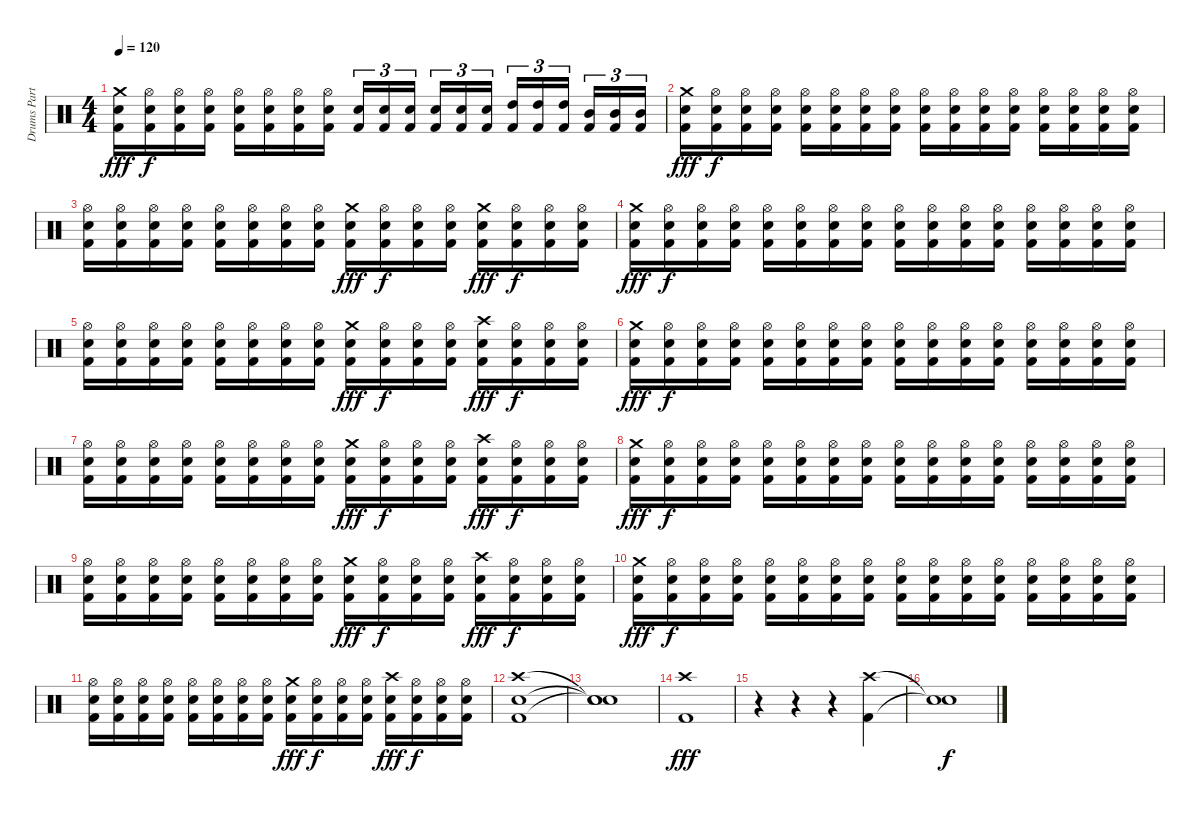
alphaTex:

\track ("Drums Part" "Drums Part") {instrument percussion}
\staff {score}
\articulation defaults
\ts (4 4)
\tempo 120
\clef neutral
\ks c
("Crash medium (hit)" "Electric Snare (hit)" "Kick (hit) 2").16{dy fff} ("Hi-Hat (open)" "Electric Snare (hit)" "Kick (hit) 2").16{dy f} ("Hi-Hat (open)" "Electric Snare (hit)" "Kick (hit) 2").16 ("Hi-Hat (open)" "Electric Snare (hit)" "Kick (hit) 2").16 ("Hi-Hat (open)" "Electric Snare (hit)" "Kick (hit) 2").16 ("Hi-Hat (open)" "Electric Snare (hit)" "Kick (hit) 2").16 ("Hi-Hat (open)" "Electric Snare (hit)" "Kick (hit) 2").16 ("Hi-Hat (open)" "Electric Snare (hit)" "Kick (hit) 2").16 ("Electric Snare (hit)" "Kick (hit) 2").16{tu (3 2)} ("Electric Snare (hit)" "Kick (hit) 2").16{tu (3 2)} ("Electric Snare (hit)" "Kick (hit) 2").16{tu (3 2)} ("Electric Snare (hit)" "Kick (hit) 2").16{tu (3 2)} ("Electric Snare (hit)" "Kick (hit) 2").16{tu (3 2)} ("Electric Snare (hit)" "Kick (hit) 2").16{tu (3 2)} ("High Tom (hit)" "Kick (hit) 2").16{tu (3 2)} ("High Tom (hit)" "Kick (hit) 2").16{tu (3 2)} ("High Tom (hit)" "Kick (hit) 2").16{tu (3 2)} ("Mid Tom (hit)" "Kick (hit) 2").16{tu (3 2)} ("Mid Tom (hit)" "Kick (hit) 2").16{tu (3 2)} ("Mid Tom (hit)" "Kick (hit) 2").16{tu (3 2)} |
("Crash medium (hit)" "Electric Snare (hit)" "Kick (hit) 2").16{dy fff} ("Hi-Hat (open)" "Electric Snare (hit)" "Kick (hit) 2").16{dy f} ("Hi-Hat (open)" "Electric Snare (hit)" "Kick (hit) 2").16 ("Hi-Hat (open)" "Electric Snare (hit)" "Kick (hit) 2").16 ("Hi-Hat (open)" "Electric Snare (hit)" "Kick (hit) 2").16 ("Hi-Hat (open)" "Electric Snare (hit)" "Kick (hit) 2").16 ("Hi-Hat (open)" "Electric Snare (hit)" "Kick (hit) 2").16 ("Hi-Hat (open)" "Electric Snare (hit)" "Kick (hit) 2").16 ("Hi-Hat (open)" "Electric Snare (hit)" "Kick (hit) 2").16 ("Hi-Hat (open)" "Electric Snare (hit)" "Kick (hit) 2").16 ("Hi-Hat (open)" "Electric Snare (hit)" "Kick (hit) 2").16 ("Hi-Hat (open)" "Electric Snare (hit)" "Kick (hit) 2").16 ("Hi-Hat (open)" "Electric Snare (hit)" "Kick (hit) 2").16 ("Hi-Hat (open)" "Electric Snare (hit)" "Kick (hit) 2").16 ("Hi-Hat (open)" "Electric Snare (hit)" "Kick (hit) 2").16 ("Hi-Hat (open)" "Electric Snare (hit)" "Kick (hit) 2").16 |
("Hi-Hat (open)" "Electric Snare (hit)" "Kick (hit) 2").16 ("Hi-Hat (open)" "Electric Snare (hit)" "Kick (hit) 2").16 ("Hi-Hat (open)" "Electric Snare (hit)" "Kick (hit) 2").16 ("Hi-Hat (open)" "Electric Snare (hit)" "Kick (hit) 2").16 ("Hi-Hat (open)" "Electric Snare (hit)" "Kick (hit) 2").16 ("Hi-Hat (open)" "Electric Snare (hit)" "Kick (hit) 2").16 ("Hi-Hat (open)" "Electric Snare (hit)" "Kick (hit) 2").16 ("Hi-Hat (open)" "Electric Snare (hit)" "Kick (hit) 2").16 ("Crash medium (hit)" "Electric Snare (hit)" "Kick (hit) 2").16{dy fff} ("Hi-Hat (open)" "Electric Snare (hit)" "Kick (hit) 2").16{dy f} ("Hi-Hat (open)" "Electric Snare (hit)" "Kick (hit) 2").16 ("Hi-Hat (open)" "Electric Snare (hit)" "Kick (hit) 2").16 ("Crash medium (hit)" "Electric Snare (hit)" "Kick (hit) 2").16{dy fff} ("Hi-Hat (open)" "Electric Snare (hit)" "Kick (hit) 2").16{dy f} ("Hi-Hat (open)" "Electric Snare (hit)" "Kick (hit) 2").16 ("Hi-Hat (open)" "Electric Snare (hit)" "Kick (hit) 2").16 |
("Crash medium (hit)" "Electric Snare (hit)" "Kick (hit) 2").16{dy fff} ("Hi-Hat (open)" "Electric Snare (hit)" "Kick (hit) 2").16{dy f} ("Hi-Hat (open)" "Electric Snare (hit)" "Kick (hit) 2").16 ("Hi-Hat (open)" "Electric Snare (hit)" "Kick (hit) 2").16 ("Hi-Hat (open)" "Electric Snare (hit)" "Kick (hit) 2").16 ("Hi-Hat (open)" "Electric Snare (hit)" "Kick (hit) 2").16 ("Hi-Hat (open)" "Electric Snare (hit)" "Kick (hit) 2").16 ("Hi-Hat (open)" "Electric Snare (hit)" "Kick (hit) 2").16 ("Hi-Hat (open)" "Electric Snare (hit)" "Kick (hit) 2").16 ("Hi-Hat (open)" "Electric Snare (hit)" "Kick (hit) 2").16 ("Hi-Hat (open)" "Electric Snare (hit)" "Kick (hit) 2").16 ("Hi-Hat (open)" "Electric Snare (hit)" "Kick (hit) 2").16 ("Hi-Hat (open)" "Electric Snare (hit)" "Kick (hit) 2").16 ("Hi-Hat (open)" "Electric Snare (hit)" "Kick (hit) 2").16 ("Hi-Hat (open)" "Electric Snare (hit)" "Kick (hit) 2").16 ("Hi-Hat (open)" "Electric Snare (hit)" "Kick (hit) 2").16 |
("Hi-Hat (open)" "Electric Snare (hit)" "Kick (hit) 2").16 ("Hi-Hat (open)" "Electric Snare (hit)" "Kick (hit) 2").16 ("Hi-Hat (open)" "Electric Snare (hit)" "Kick (hit) 2").16 ("Hi-Hat (open)" "Electric Snare (hit)" "Kick (hit) 2").16 ("Hi-Hat (open)" "Electric Snare (hit)" "Kick (hit) 2").16 ("Hi-Hat (open)" "Electric Snare (hit)" "Kick (hit) 2").16 ("Hi-Hat (open)" "Electric Snare (hit)" "Kick (hit) 2").16 ("Hi-Hat (open)" "Electric Snare (hit)" "Kick (hit) 2").16 ("Crash medium (hit)" "Electric Snare (hit)" "Kick (hit) 2").16{dy fff} ("Hi-Hat (open)" "Electric Snare (hit)" "Kick (hit) 2").16{dy f} ("Hi-Hat (open)" "Electric Snare (hit)" "Kick (hit) 2").16 ("Hi-Hat (open)" "Electric Snare (hit)" "Kick (hit) 2").16 ("Crash high (hit)" "Electric Snare (hit)" "Kick (hit) 2").16{dy fff} ("Hi-Hat (open)" "Electric Snare (hit)" "Kick (hit) 2").16{dy f} ("Hi-Hat (open)" "Electric Snare (hit)" "Kick (hit) 2").16 ("Hi-Hat (open)" "Electric Snare (hit)" "Kick (hit) 2").16 |
("Crash medium (hit)" "Electric Snare (hit)" "Kick (hit) 2").16{dy fff} ("Hi-Hat (open)" "Electric Snare (hit)" "Kick (hit) 2").16{dy f} ("Hi-Hat (open)" "Electric Snare (hit)" "Kick (hit) 2").16 ("Hi-Hat (open)" "Electric Snare (hit)" "Kick (hit) 2").16 ("Hi-Hat (open)" "Electric Snare (hit)" "Kick (hit) 2").16 ("Hi-Hat (open)" "Electric Snare (hit)" "Kick (hit) 2").16 ("Hi-Hat (open)" "Electric Snare (hit)" "Kick (hit) 2").16 ("Hi-Hat (open)" "Electric Snare (hit)" "Kick (hit) 2").16 ("Hi-Hat (open)" "Electric Snare (hit)" "Kick (hit) 2").16 ("Hi-Hat (open)" "Electric Snare (hit)" "Kick (hit) 2").16 ("Hi-Hat (open)" "Electric Snare (hit)" "Kick (hit) 2").16 ("Hi-Hat (open)" "Electric Snare (hit)" "Kick (hit) 2").16 ("Hi-Hat (open)" "Electric Snare (hit)" "Kick (hit) 2").16 ("Hi-Hat (open)" "Electric Snare (hit)" "Kick (hit) 2").16 ("Hi-Hat (open)" "Electric Snare (hit)" "Kick (hit) 2").16 ("Hi-Hat (open)" "Electric Snare (hit)" "Kick (hit) 2").16 |
("Hi-Hat (open)" "Electric Snare (hit)" "Kick (hit) 2").16 ("Hi-Hat (open)" "Electric Snare (hit)" "Kick (hit) 2").16 ("Hi-Hat (open)" "Electric Snare (hit)" "Kick (hit) 2").16 ("Hi-Hat (open)" "Electric Snare (hit)" "Kick (hit) 2").16 ("Hi-Hat (open)" "Electric Snare (hit)" "Kick (hit) 2").16 ("Hi-Hat (open)" "Electric Snare (hit)" "Kick (hit) 2").16 ("Hi-Hat (open)" "Electric Snare (hit)" "Kick (hit) 2").16 ("Hi-Hat (open)" "Electric Snare (hit)" "Kick (hit) 2").16 ("Crash medium (hit)" "Electric Snare (hit)" "Kick (hit) 2").16{dy fff} ("Hi-Hat (open)" "Electric Snare (hit)" "Kick (hit) 2").16{dy f} ("Hi-Hat (open)" "Electric Snare (hit)" "Kick (hit) 2").16 ("Hi-Hat (open)" "Electric Snare (hit)" "Kick (hit) 2").16 ("Crash high (hit)" "Electric Snare (hit)" "Kick (hit) 2").16{dy fff} ("Hi-Hat (open)" "Electric Snare (hit)" "Kick (hit) 2").16{dy f} ("Hi-Hat (open)" "Electric Snare (hit)" "Kick (hit) 2").16 ("Hi-Hat (open)" "Electric Snare (hit)" "Kick (hit) 2").16 |
("Crash medium (hit)" "Electric Snare (hit)" "Kick (hit) 2").16{dy fff} ("Hi-Hat (open)" "Electric Snare (hit)" "Kick (hit) 2").16{dy f} ("Hi-Hat (open)" "Electric Snare (hit)" "Kick (hit) 2").16 ("Hi-Hat (open)" "Electric Snare (hit)" "Kick (hit) 2").16 ("Hi-Hat (open)" "Electric Snare (hit)" "Kick (hit) 2").16 ("Hi-Hat (open)" "Electric Snare (hit)" "Kick (hit) 2").16 ("Hi-Hat (open)" "Electric Snare (hit)" "Kick (hit) 2").16 ("Hi-Hat (open)" "Electric Snare (hit)" "Kick (hit) 2").16 ("Hi-Hat (open)" "Electric Snare (hit)" "Kick (hit) 2").16 ("Hi-Hat (open)" "Electric Snare (hit)" "Kick (hit) 2").16 ("Hi-Hat (open)" "Electric Snare (hit)" "Kick (hit) 2").16 ("Hi-Hat (open)" "Electric Snare (hit)" "Kick (hit) 2").16 ("Hi-Hat (open)" "Electric Snare (hit)" "Kick (hit) 2").16 ("Hi-Hat (open)" "Electric Snare (hit)" "Kick (hit) 2").16 ("Hi-Hat (open)" "Electric Snare (hit)" "Kick (hit) 2").16 ("Hi-Hat (open)" "Electric Snare (hit)" "Kick (hit) 2").16 |
("Hi-Hat (open)" "Electric Snare (hit)" "Kick (hit) 2").16 ("Hi-Hat (open)" "Electric Snare (hit)" "Kick (hit) 2").16 ("Hi-Hat (open)" "Electric Snare (hit)" "Kick (hit) 2").16 ("Hi-Hat (open)" "Electric Snare (hit)" "Kick (hit) 2").16 ("Hi-Hat (open)" "Electric Snare (hit)" "Kick (hit) 2").16 ("Hi-Hat (open)" "Electric Snare (hit)" "Kick (hit) 2").16 ("Hi-Hat (open)" "Electric Snare (hit)" "Kick (hit) 2").16 ("Hi-Hat (open)" "Electric Snare (hit)" "Kick (hit) 2").16 ("Crash medium (hit)" "Electric Snare (hit)" "Kick (hit) 2").16{dy fff} ("Hi-Hat (open)" "Electric Snare (hit)" "Kick (hit) 2").16{dy f} ("Hi-Hat (open)" "Electric Snare (hit)" "Kick (hit) 2").16 ("Hi-Hat (open)" "Electric Snare (hit)" "Kick (hit) 2").16 ("Crash high (hit)" "Electric Snare (hit)" "Kick (hit) 2").16{dy fff} ("Hi-Hat (open)" "Electric Snare (hit)" "Kick (hit) 2").16{dy f} ("Hi-Hat (open)" "Electric Snare (hit)" "Kick (hit) 2").16 ("Hi-Hat (open)" "Electric Snare (hit)" "Kick (hit) 2").16 |
("Crash medium (hit)" "Electric Snare (hit)" "Kick (hit) 2").16{dy fff} ("Hi-Hat (open)" "Electric Snare (hit)" "Kick (hit) 2").16{dy f} ("Hi-Hat (open)" "Electric Snare (hit)" "Kick (hit) 2").16 ("Hi-Hat (open)" "Electric Snare (hit)" "Kick (hit) 2").16 ("Hi-Hat (open)" "Electric Snare (hit)" "Kick (hit) 2").16 ("Hi-Hat (open)" "Electric Snare (hit)" "Kick (hit) 2").16 ("Hi-Hat (open)" "Electric Snare (hit)" "Kick (hit) 2").16 ("Hi-Hat (open)" "Electric Snare (hit)" "Kick (hit) 2").16 ("Hi-Hat (open)" "Electric Snare (hit)" "Kick (hit) 2").16 ("Hi-Hat (open)" "Electric Snare (hit)" "Kick (hit) 2").16 ("Hi-Hat (open)" "Electric Snare (hit)" "Kick (hit) 2").16 ("Hi-Hat (open)" "Electric Snare (hit)" "Kick (hit) 2").16 ("Hi-Hat (open)" "Electric Snare (hit)" "Kick (hit) 2").16 ("Hi-Hat (open)" "Electric Snare (hit)" "Kick (hit) 2").16 ("Hi-Hat (open)" "Electric Snare (hit)" "Kick (hit) 2").16 ("Hi-Hat (open)" "Electric Snare (hit)" "Kick (hit) 2").16 |
("Hi-Hat (open)" "Electric Snare (hit)" "Kick (hit) 2").16 ("Hi-Hat (open)" "Electric Snare (hit)" "Kick (hit) 2").16 ("Hi-Hat (open)" "Electric Snare (hit)" "Kick (hit) 2").16 ("Hi-Hat (open)" "Electric Snare (hit)" "Kick (hit) 2").16 ("Hi-Hat (open)" "Electric Snare (hit)" "Kick (hit) 2").16 ("Hi-Hat (open)" "Electric Snare (hit)" "Kick (hit) 2").16 ("Hi-Hat (open)" "Electric Snare (hit)" "Kick (hit) 2").16 ("Hi-Hat (open)" "Electric Snare (hit)" "Kick (hit) 2").16 ("Crash medium (hit)" "Electric Snare (hit)" "Kick (hit) 2").16{dy fff} ("Hi-Hat (open)" "Electric Snare (hit)" "Kick (hit) 2").16{dy f} ("Hi-Hat (open)" "Electric Snare (hit)" "Kick (hit) 2").16 ("Hi-Hat (open)" "Electric Snare (hit)" "Kick (hit) 2").16 ("Crash high (hit)" "Electric Snare (hit)" "Kick (hit) 2").16{dy fff} ("Hi-Hat (open)" "Electric Snare (hit)" "Kick (hit) 2").16{dy f} ("Hi-Hat (open)" "Electric Snare (hit)" "Kick (hit) 2").16 ("Hi-Hat (open)" "Electric Snare (hit)" "Kick (hit) 2").16 |
("Crash high (hit)" "Electric Snare (hit)" "Kick (hit) 2").1 |
("Snare (hit)"{t} "Snare (hit)"{t} "Snare (hit)"{t}).1 |
("Crash high (hit)" "Kick (hit) 2").1{dy fff} |
r.4 r.4 r.4 ("Crash high (hit)" "Kick (hit) 2").4 |
("Snare (hit)"{t} "Snare (hit)"{t}).1{dy f}
